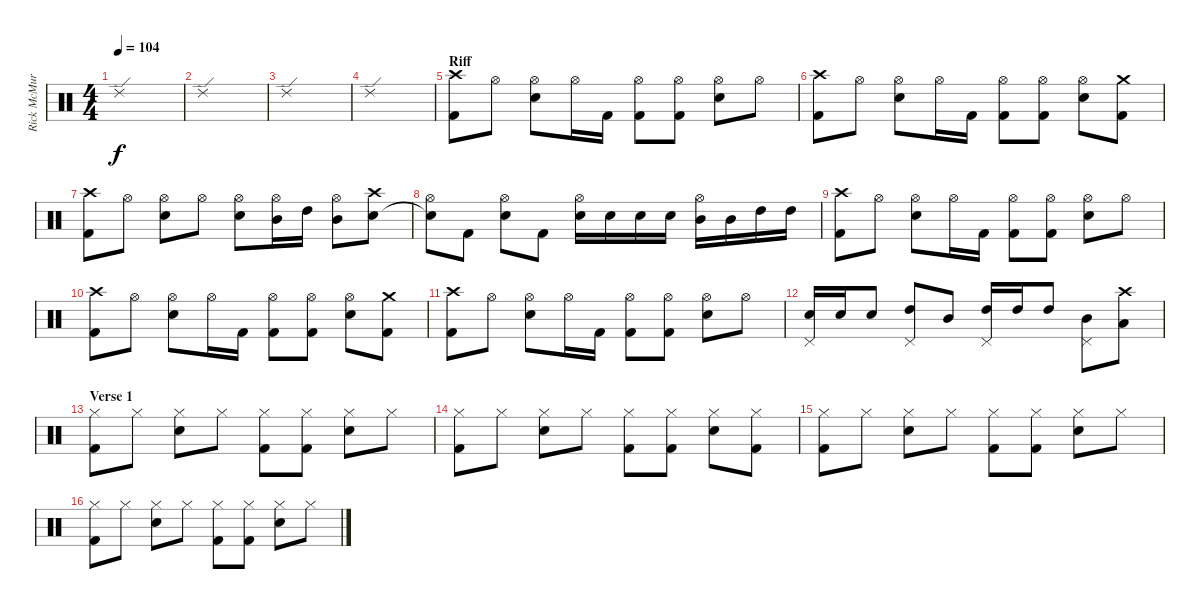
\track ("Rick McMurray" "Rick McMur") {instrument percussion}
\staff {score}
\articulation defaults
\ts (4 4)
\tempo 104
\clef neutral
\ks c "Ride (edge) 2".1{dy f}
|
"Ride (edge) 2".1 |
"Ride (edge) 2".1 |
"Ride (edge) 2".1 |
\section ("" "Riff")
("Crash high (hit)" "Kick (hit) 2").8 "Hi-Hat (open)".8 ("Hi-Hat (open)" "Snare (hit) 2").8 "Hi-Hat (open)".16 "Kick (hit) 2".16 ("Hi-Hat (open)" "Kick (hit) 2").8 ("Hi-Hat (open)" "Kick (hit) 2").8 ("Hi-Hat (open)" "Snare (hit) 2").8 "Hi-Hat (open)".8 |
("Crash high (hit)" "Kick (hit) 2").8 "Hi-Hat (open)".8 ("Hi-Hat (open)" "Snare (hit) 2").8 "Hi-Hat (open)".16 "Kick (hit) 2".16 ("Hi-Hat (open)" "Kick (hit) 2").8 ("Hi-Hat (open)" "Kick (hit) 2").8 ("Hi-Hat (open)" "Snare (hit) 2").8 ("Crash medium (hit)" "Kick (hit) 2").8 |
("Crash high (hit)" "Kick (hit) 2").8 "Hi-Hat (open)".8 ("Hi-Hat (open)" "Snare (hit) 2").8 "Hi-Hat (open)".8 ("Hi-Hat (open)" "Snare (hit) 2").8 ("Hi-Hat (open)" "Mid Tom (hit)").16 "High Tom (hit)".16 ("Hi-Hat (open)" "Mid Tom (hit)").8 ("Crash high (hit)" "Snare (hit) 2").8 |
("Hi-Hat (open)" "Snare (hit)"{t}).8 "Kick (hit) 2".8 ("Hi-Hat (open)" "Snare (hit) 2").8 "Kick (hit) 2".8 ("Snare (hit) 2" "Hi-Hat (open)").16 "Snare (hit) 2".16 "Snare (hit) 2".16 "Snare (hit) 2".16 ("Mid Tom (hit)" "Hi-Hat (open)").16 "Mid Tom (hit)".16 "High Tom (hit)".16 "High Tom (hit)".16 |
("Crash high (hit)" "Kick (hit) 2").8 "Hi-Hat (open)".8 ("Hi-Hat (open)" "Snare (hit) 2").8 "Hi-Hat (open)".16 "Kick (hit) 2".16 ("Hi-Hat (open)" "Kick (hit) 2").8 ("Hi-Hat (open)" "Kick (hit) 2").8 ("Hi-Hat (open)" "Snare (hit) 2").8 "Hi-Hat (open)".8 |
("Crash high (hit)" "Kick (hit) 2").8 "Hi-Hat (open)".8 ("Hi-Hat (open)" "Snare (hit) 2").8 "Hi-Hat (open)".16 "Kick (hit) 2".16 ("Hi-Hat (open)" "Kick (hit) 2").8 ("Hi-Hat (open)" "Kick (hit) 2").8 ("Hi-Hat (open)" "Snare (hit) 2").8 ("Crash medium (hit)" "Kick (hit) 2").8 |
("Crash high (hit)" "Kick (hit) 2").8 "Hi-Hat (open)".8 ("Hi-Hat (open)" "Snare (hit) 2").8 "Hi-Hat (open)".16 "Kick (hit) 2".16 ("Hi-Hat (open)" "Kick (hit) 2").8 ("Hi-Hat (open)" "Kick (hit) 2").8 ("Hi-Hat (open)" "Snare (hit) 2").8 "Hi-Hat (open)".8 |
("Snare (hit) 2" "Pedal Hi-Hat (hit)").16 "Snare (hit) 2".16 "Snare (hit) 2".8 ("High Tom (hit)" "Pedal Hi-Hat (hit)").8 "Mid Tom (hit)".8 ("High Tom (hit)" "Pedal Hi-Hat (hit)").16 "High Tom (hit)".16 "High Tom (hit)".8 ("Mid Tom (hit)" "Pedal Hi-Hat (hit)").8 ("Crash high (hit)" "Low Tom (hit)").8 |
\section ("" "Verse 1")
("Hi-Hat (closed)" "Kick (hit) 2").8 "Hi-Hat (closed)".8 ("Hi-Hat (closed)" "Snare (hit) 2").8 "Hi-Hat (closed)".8 ("Hi-Hat (closed)" "Kick (hit) 2").8 ("Hi-Hat (closed)" "Kick (hit) 2").8 ("Hi-Hat (closed)" "Snare (hit) 2").8 "Hi-Hat (closed)".8 |
("Hi-Hat (closed)" "Kick (hit) 2").8 "Hi-Hat (closed)".8 ("Hi-Hat (closed)" "Snare (hit) 2").8 "Hi-Hat (closed)".8 ("Hi-Hat (closed)" "Kick (hit) 2").8 ("Hi-Hat (closed)" "Kick (hit) 2").8 ("Hi-Hat (closed)" "Snare (hit) 2").8 ("Hi-Hat (closed)" "Kick (hit) 2").8 |
("Hi-Hat (closed)" "Kick (hit) 2").8 "Hi-Hat (closed)".8 ("Hi-Hat (closed)" "Snare (hit) 2").8 "Hi-Hat (closed)".8 ("Hi-Hat (closed)" "Kick (hit) 2").8 ("Hi-Hat (closed)" "Kick (hit) 2").8 ("Hi-Hat (closed)" "Snare (hit) 2").8 "Hi-Hat (closed)".8 |
("Hi-Hat (closed)" "Kick (hit) 2").8 "Hi-Hat (closed)".8 ("Hi-Hat (closed)" "Snare (hit) 2").8 "Hi-Hat (closed)".8 ("Hi-Hat (closed)" "Kick (hit) 2").8 ("Hi-Hat (closed)" "Kick (hit) 2").8 ("Hi-Hat (closed)" "Snare (hit) 2").8 "Hi-Hat (closed)".8
